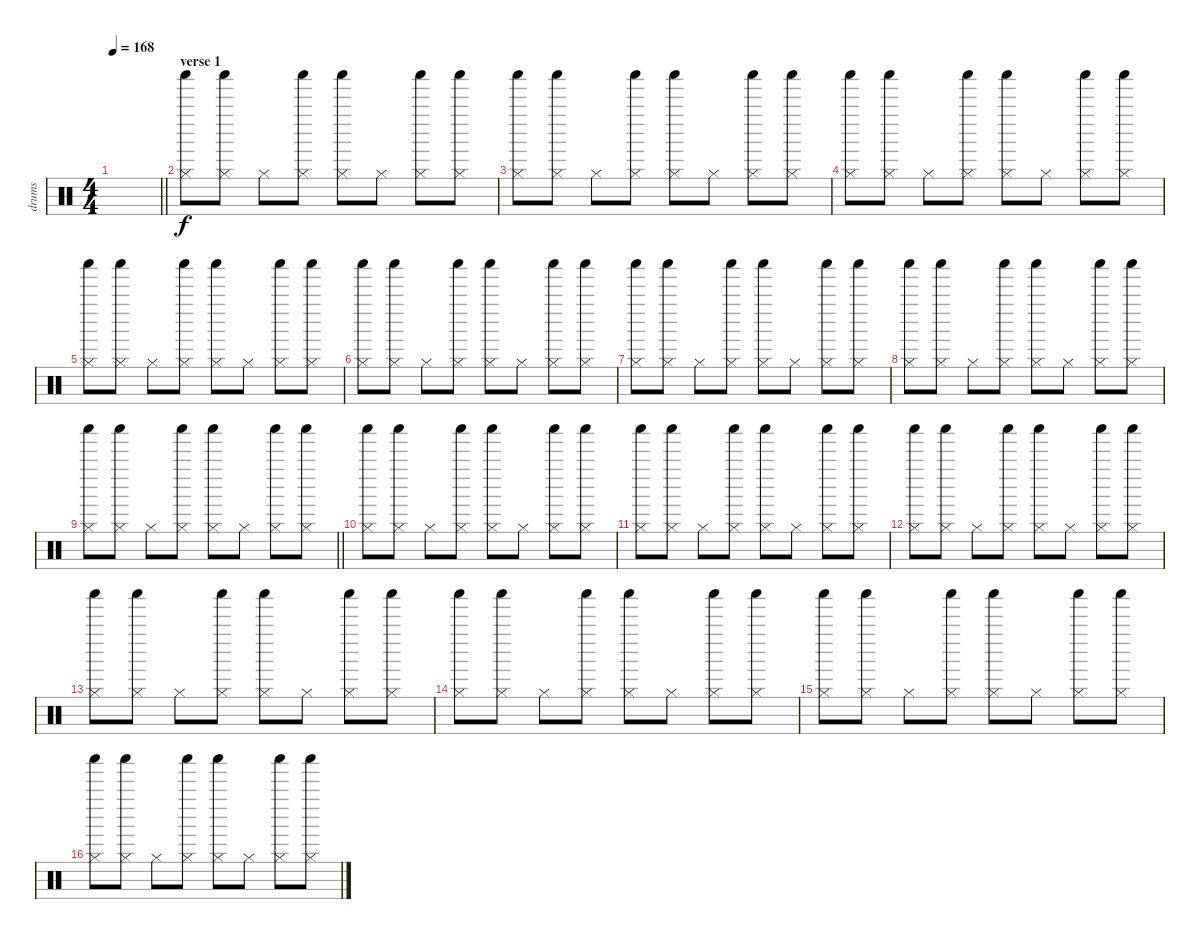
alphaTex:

\track ("drums" "drums") {instrument percussion}
\staff {score}
\articulation defaults
\ts (4 4)
\tempo 168
\clef neutral
\barLineRight lightlight
\ks c
|
\section ("" "verse 1")
("Hi-Hat (closed)" "Shaker (hit)").8 ("Hi-Hat (closed)" "Shaker (hit)").8 "Hi-Hat (closed)".8 ("Hi-Hat (closed)" "Shaker (hit)").8 ("Hi-Hat (closed)" "Shaker (hit)").8 "Hi-Hat (closed)".8 ("Hi-Hat (closed)" "Shaker (hit)").8 ("Hi-Hat (closed)" "Shaker (hit)").8 |
("Hi-Hat (closed)" "Shaker (hit)").8 ("Hi-Hat (closed)" "Shaker (hit)").8 "Hi-Hat (closed)".8 ("Hi-Hat (closed)" "Shaker (hit)").8 ("Hi-Hat (closed)" "Shaker (hit)").8 "Hi-Hat (closed)".8 ("Hi-Hat (closed)" "Shaker (hit)").8 ("Hi-Hat (closed)" "Shaker (hit)").8 |
("Hi-Hat (closed)" "Shaker (hit)").8 ("Hi-Hat (closed)" "Shaker (hit)").8 "Hi-Hat (closed)".8 ("Hi-Hat (closed)" "Shaker (hit)").8 ("Hi-Hat (closed)" "Shaker (hit)").8 "Hi-Hat (closed)".8 ("Hi-Hat (closed)" "Shaker (hit)").8 ("Hi-Hat (closed)" "Shaker (hit)").8 |
("Hi-Hat (closed)" "Shaker (hit)").8 ("Hi-Hat (closed)" "Shaker (hit)").8 "Hi-Hat (closed)".8 ("Hi-Hat (closed)" "Shaker (hit)").8 ("Hi-Hat (closed)" "Shaker (hit)").8 "Hi-Hat (closed)".8 ("Hi-Hat (closed)" "Shaker (hit)").8 ("Hi-Hat (closed)" "Shaker (hit)").8 |
("Hi-Hat (closed)" "Shaker (hit)").8 ("Hi-Hat (closed)" "Shaker (hit)").8 "Hi-Hat (closed)".8 ("Hi-Hat (closed)" "Shaker (hit)").8 ("Hi-Hat (closed)" "Shaker (hit)").8 "Hi-Hat (closed)".8 ("Hi-Hat (closed)" "Shaker (hit)").8 ("Hi-Hat (closed)" "Shaker (hit)").8 |
("Hi-Hat (closed)" "Shaker (hit)").8 ("Hi-Hat (closed)" "Shaker (hit)").8 "Hi-Hat (closed)".8 ("Hi-Hat (closed)" "Shaker (hit)").8 ("Hi-Hat (closed)" "Shaker (hit)").8 "Hi-Hat (closed)".8 ("Hi-Hat (closed)" "Shaker (hit)").8 ("Hi-Hat (closed)" "Shaker (hit)").8 |
("Hi-Hat (closed)" "Shaker (hit)").8 ("Hi-Hat (closed)" "Shaker (hit)").8 "Hi-Hat (closed)".8 ("Hi-Hat (closed)" "Shaker (hit)").8 ("Hi-Hat (closed)" "Shaker (hit)").8 "Hi-Hat (closed)".8 ("Hi-Hat (closed)" "Shaker (hit)").8 ("Hi-Hat (closed)" "Shaker (hit)").8 |
\barLineRight lightlight
("Hi-Hat (closed)" "Shaker (hit)").8 ("Hi-Hat (closed)" "Shaker (hit)").8 "Hi-Hat (closed)".8 ("Hi-Hat (closed)" "Shaker (hit)").8 ("Hi-Hat (closed)" "Shaker (hit)").8 "Hi-Hat (closed)".8 ("Hi-Hat (closed)" "Shaker (hit)").8 ("Hi-Hat (closed)" "Shaker (hit)").8 |
("Hi-Hat (closed)" "Shaker (hit)").8 ("Hi-Hat (closed)" "Shaker (hit)").8 "Hi-Hat (closed)".8 ("Hi-Hat (closed)" "Shaker (hit)").8 ("Hi-Hat (closed)" "Shaker (hit)").8 "Hi-Hat (closed)".8 ("Hi-Hat (closed)" "Shaker (hit)").8 ("Hi-Hat (closed)" "Shaker (hit)").8 |
("Hi-Hat (closed)" "Shaker (hit)").8 ("Hi-Hat (closed)" "Shaker (hit)").8 "Hi-Hat (closed)".8 ("Hi-Hat (closed)" "Shaker (hit)").8 ("Hi-Hat (closed)" "Shaker (hit)").8 "Hi-Hat (closed)".8 ("Hi-Hat (closed)" "Shaker (hit)").8 ("Hi-Hat (closed)" "Shaker (hit)").8 |
("Hi-Hat (closed)" "Shaker (hit)").8 ("Hi-Hat (closed)" "Shaker (hit)").8 "Hi-Hat (closed)".8 ("Hi-Hat (closed)" "Shaker (hit)").8 ("Hi-Hat (closed)" "Shaker (hit)").8 "Hi-Hat (closed)".8 ("Hi-Hat (closed)" "Shaker (hit)").8 ("Hi-Hat (closed)" "Shaker (hit)").8 |
("Hi-Hat (closed)" "Shaker (hit)").8 ("Hi-Hat (closed)" "Shaker (hit)").8 "Hi-Hat (closed)".8 ("Hi-Hat (closed)" "Shaker (hit)").8 ("Hi-Hat (closed)" "Shaker (hit)").8 "Hi-Hat (closed)".8 ("Hi-Hat (closed)" "Shaker (hit)").8 ("Hi-Hat (closed)" "Shaker (hit)").8 |
("Hi-Hat (closed)" "Shaker (hit)").8 ("Hi-Hat (closed)" "Shaker (hit)").8 "Hi-Hat (closed)".8 ("Hi-Hat (closed)" "Shaker (hit)").8 ("Hi-Hat (closed)" "Shaker (hit)").8 "Hi-Hat (closed)".8 ("Hi-Hat (closed)" "Shaker (hit)").8 ("Hi-Hat (closed)" "Shaker (hit)").8 |
("Hi-Hat (closed)" "Shaker (hit)").8 ("Hi-Hat (closed)" "Shaker (hit)").8 "Hi-Hat (closed)".8 ("Hi-Hat (closed)" "Shaker (hit)").8 ("Hi-Hat (closed)" "Shaker (hit)").8 "Hi-Hat (closed)".8 ("Hi-Hat (closed)" "Shaker (hit)").8 ("Hi-Hat (closed)" "Shaker (hit)").8 |
("Hi-Hat (closed)" "Shaker (hit)").8 ("Hi-Hat (closed)" "Shaker (hit)").8 "Hi-Hat (closed)".8 ("Hi-Hat (closed)" "Shaker (hit)").8 ("Hi-Hat (closed)" "Shaker (hit)").8 "Hi-Hat (closed)".8 ("Hi-Hat (closed)" "Shaker (hit)").8 ("Hi-Hat (closed)" "Shaker (hit)").8
